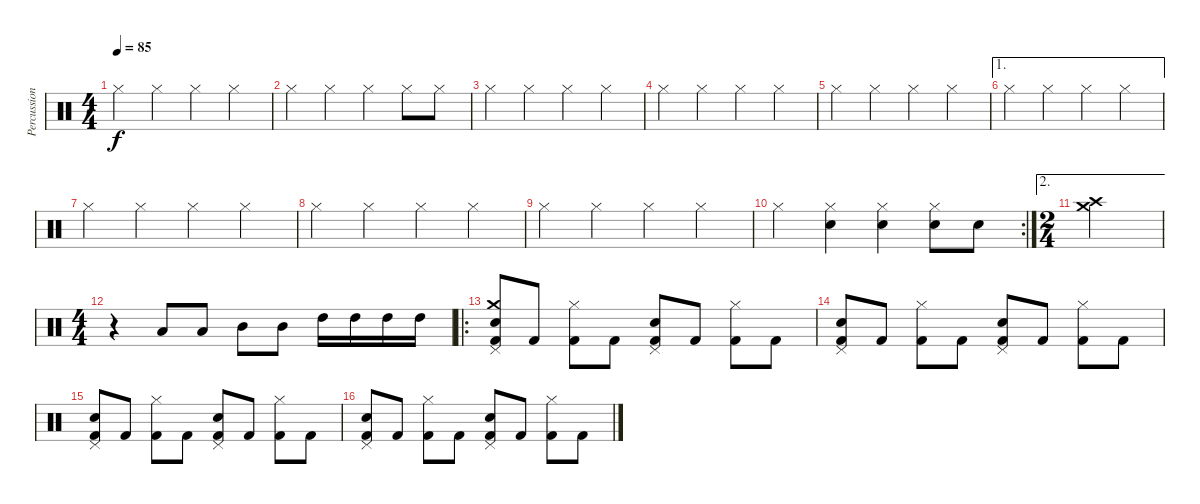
\track ("Percussions" "Percussion") {instrument percussion}
\staff {score}
\articulation defaults
\ts (4 4)
\tempo 85
\clef neutral
\ks c "Hi-Hat (closed)".4{dy f} "Hi-Hat (closed)".4 "Hi-Hat (closed)".4 "Hi-Hat (closed)".4
|
"Hi-Hat (closed)".4 "Hi-Hat (closed)".4 "Hi-Hat (closed)".4 "Hi-Hat (closed)".8 "Hi-Hat (closed)".8 |
"Hi-Hat (closed)".4 "Hi-Hat (closed)".4 "Hi-Hat (closed)".4 "Hi-Hat (closed)".4 |
"Hi-Hat (closed)".4 "Hi-Hat (closed)".4 "Hi-Hat (closed)".4 "Hi-Hat (closed)".4 |
"Hi-Hat (closed)".4 "Hi-Hat (closed)".4 "Hi-Hat (closed)".4 "Hi-Hat (closed)".4 |
\ae 1 "Hi-Hat (closed)".4 "Hi-Hat (closed)".4 "Hi-Hat (closed)".4 "Hi-Hat (closed)".4
|
"Hi-Hat (closed)".4 "Hi-Hat (closed)".4 "Hi-Hat (closed)".4 "Hi-Hat (closed)".4 |
"Hi-Hat (closed)".4 "Hi-Hat (closed)".4 "Hi-Hat (closed)".4 "Hi-Hat (closed)".4 |
"Hi-Hat (closed)".4 "Hi-Hat (closed)".4 "Hi-Hat (closed)".4 "Hi-Hat (closed)".4 |
\rc 2 "Hi-Hat (closed)".4
("Snare (hit) 2" "Hi-Hat (closed)").4 ("Snare (hit) 2" "Hi-Hat (closed)").4 ("Snare (hit) 2" "Hi-Hat (closed)").8 "Snare (hit) 2".8 |
\ae 2
\ts (2 4)
("Crash medium (hit)" "Crash high (hit)").2 |
\ts (4 4)
r.4 "Low Tom (hit)".8 "Low Tom (hit)".8 "Mid Tom (hit)".8 "Mid Tom (hit)".8 "High Tom (hit)".16 "High Tom (hit)".16 "High Tom (hit)".16 "High Tom (hit)".16 |
\ro
("Snare (hit) 2" "Crash medium (hit)" "Pedal Hi-Hat (hit)" "Kick (hit) 2").8 "Kick (hit) 2".8 ("Hi-Hat (closed)" "Kick (hit) 2").8 "Kick (hit) 2".8 ("Pedal Hi-Hat (hit)" "Snare (hit) 2" "Kick (hit) 2").8 "Kick (hit) 2".8 ("Hi-Hat (closed)" "Kick (hit) 2").8 "Kick (hit) 2".8 |
("Snare (hit) 2" "Pedal Hi-Hat (hit)" "Kick (hit) 2").8 "Kick (hit) 2".8 ("Hi-Hat (closed)" "Kick (hit) 2").8 "Kick (hit) 2".8 ("Pedal Hi-Hat (hit)" "Snare (hit) 2" "Kick (hit) 2").8 "Kick (hit) 2".8 ("Hi-Hat (closed)" "Kick (hit) 2").8 "Kick (hit) 2".8 |
("Snare (hit) 2" "Pedal Hi-Hat (hit)" "Kick (hit) 2").8 "Kick (hit) 2".8 ("Hi-Hat (closed)" "Kick (hit) 2").8 "Kick (hit) 2".8 ("Pedal Hi-Hat (hit)" "Snare (hit) 2" "Kick (hit) 2").8 "Kick (hit) 2".8 ("Hi-Hat (closed)" "Kick (hit) 2").8 "Kick (hit) 2".8 |
("Snare (hit) 2" "Pedal Hi-Hat (hit)" "Kick (hit) 2").8 "Kick (hit) 2".8 ("Hi-Hat (closed)" "Kick (hit) 2").8 "Kick (hit) 2".8 ("Pedal Hi-Hat (hit)" "Snare (hit) 2" "Kick (hit) 2").8 "Kick (hit) 2".8 ("Hi-Hat (closed)" "Kick (hit) 2").8 "Kick (hit) 2".8
